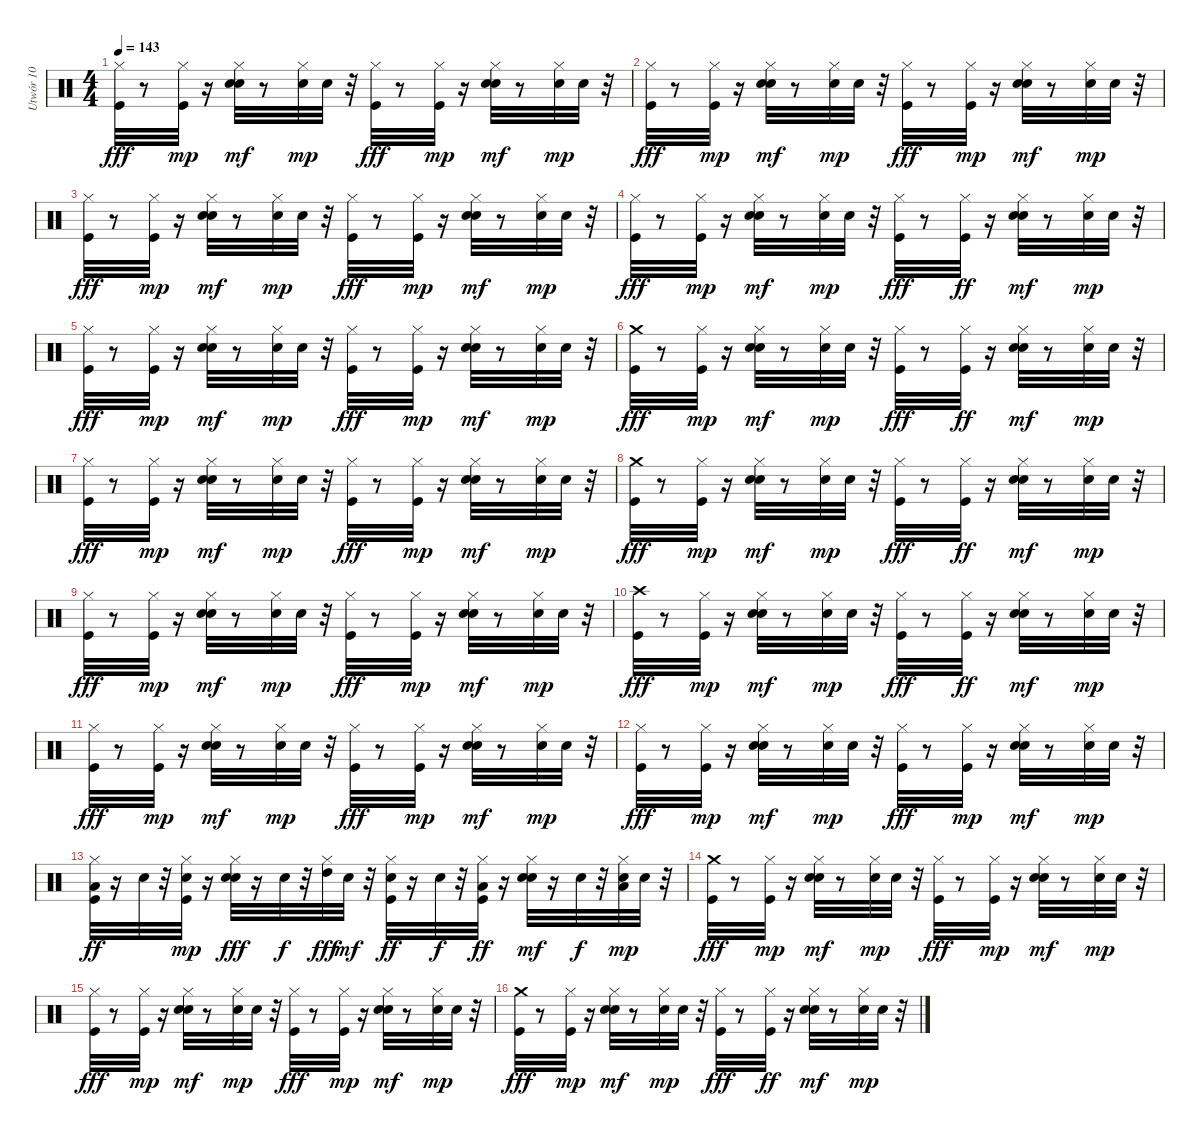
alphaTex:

\track ("Utwór 10" "Utwór 10") {instrument percussion}
\staff {score}
\articulation defaults
\ts (4 4)
\tempo 143
\clef neutral
\ks c
("Hi-Hat (closed)" "Kick (hit)").32{dy fff} r.8 ("Hi-Hat (closed)" "Kick (hit)").32{dy mp} r.16 ("Hi-Hat (closed)" "Snare (hit) 2" "Hand Clap (hit)").32{dy mf} r.8 ("Snare (hit) 2" "Hi-Hat (closed)").32{dy mp} "Hand Clap (hit)".32 r.32 ("Hi-Hat (closed)" "Kick (hit)").32{dy fff} r.8 ("Kick (hit)" "Hi-Hat (closed)").32{dy mp} r.16 ("Snare (hit) 2" "Hi-Hat (closed)" "Hand Clap (hit)").32{dy mf} r.8 ("Hi-Hat (closed)" "Snare (hit) 2").32{dy mp} "Hand Clap (hit)".32 r.32 |
("Kick (hit)" "Hi-Hat (closed)").32{dy fff} r.8 ("Hi-Hat (closed)" "Kick (hit)").32{dy mp} r.16 ("Snare (hit) 2" "Hi-Hat (closed)" "Hand Clap (hit)").32{dy mf} r.8 ("Hi-Hat (closed)" "Snare (hit) 2").32{dy mp} "Hand Clap (hit)".32 r.32 ("Kick (hit)" "Hi-Hat (closed)").32{dy fff} r.8 ("Kick (hit)" "Hi-Hat (closed)").32{dy mp} r.16 ("Hi-Hat (closed)" "Snare (hit) 2" "Hand Clap (hit)").32{dy mf} r.8 ("Hi-Hat (closed)" "Snare (hit) 2").32{dy mp} "Hand Clap (hit)".32 r.32 |
("Hi-Hat (closed)" "Kick (hit)").32{dy fff} r.8 ("Kick (hit)" "Hi-Hat (closed)").32{dy mp} r.16 ("Snare (hit) 2" "Hi-Hat (closed)" "Hand Clap (hit)").32{dy mf} r.8 ("Snare (hit) 2" "Hi-Hat (closed)").32{dy mp} "Hand Clap (hit)".32 r.32 ("Kick (hit)" "Hi-Hat (closed)").32{dy fff} r.8 ("Kick (hit)" "Hi-Hat (closed)").32{dy mp} r.16 ("Snare (hit) 2" "Hi-Hat (closed)" "Hand Clap (hit)").32{dy mf} r.8 ("Snare (hit) 2" "Hi-Hat (closed)").32{dy mp} "Hand Clap (hit)".32 r.32 |
("Hi-Hat (closed)" "Kick (hit)").32{dy fff} r.8 ("Kick (hit)" "Hi-Hat (closed)").32{dy mp} r.16 ("Snare (hit) 2" "Hi-Hat (closed)" "Hand Clap (hit)").32{dy mf} r.8 ("Snare (hit) 2" "Hi-Hat (closed)").32{dy mp} "Hand Clap (hit)".32 r.32 ("Hi-Hat (closed)" "Kick (hit)").32{dy fff} r.8 ("Hi-Hat (closed)" "Kick (hit)").32{dy ff} r.16 ("Hi-Hat (closed)" "Snare (hit) 2" "Hand Clap (hit)").32{dy mf} r.8 ("Snare (hit) 2" "Hi-Hat (closed)").32{dy mp} "Hand Clap (hit)".32 r.32 |
("Kick (hit)" "Hi-Hat (closed)").32{dy fff} r.8 ("Kick (hit)" "Hi-Hat (closed)").32{dy mp} r.16 ("Hi-Hat (closed)" "Snare (hit) 2" "Hand Clap (hit)").32{dy mf} r.8 ("Hi-Hat (closed)" "Snare (hit) 2").32{dy mp} "Hand Clap (hit)".32 r.32 ("Hi-Hat (closed)" "Kick (hit)").32{dy fff} r.8 ("Kick (hit)" "Hi-Hat (closed)").32{dy mp} r.16 ("Snare (hit) 2" "Hi-Hat (closed)" "Hand Clap (hit)").32{dy mf} r.8 ("Snare (hit) 2" "Hi-Hat (closed)").32{dy mp} "Hand Clap (hit)".32 r.32 |
("Crash medium (hit)" "Kick (hit)").32{dy fff} r.8 ("Kick (hit)" "Hi-Hat (closed)").32{dy mp} r.16 ("Snare (hit) 2" "Hi-Hat (closed)" "Hand Clap (hit)").32{dy mf} r.8 ("Hi-Hat (closed)" "Snare (hit) 2").32{dy mp} "Hand Clap (hit)".32 r.32 ("Hi-Hat (closed)" "Kick (hit)").32{dy fff} r.8 ("Hi-Hat (closed)" "Kick (hit)").32{dy ff} r.16 ("Hi-Hat (closed)" "Snare (hit) 2" "Hand Clap (hit)").32{dy mf} r.8 ("Hi-Hat (closed)" "Snare (hit) 2").32{dy mp} "Hand Clap (hit)".32 r.32 |
("Kick (hit)" "Hi-Hat (closed)").32{dy fff} r.8 ("Hi-Hat (closed)" "Kick (hit)").32{dy mp} r.16 ("Snare (hit) 2" "Hi-Hat (closed)" "Hand Clap (hit)").32{dy mf} r.8 ("Snare (hit) 2" "Hi-Hat (closed)").32{dy mp} "Hand Clap (hit)".32 r.32 ("Kick (hit)" "Hi-Hat (closed)").32{dy fff} r.8 ("Kick (hit)" "Hi-Hat (closed)").32{dy mp} r.16 ("Hi-Hat (closed)" "Snare (hit) 2" "Hand Clap (hit)").32{dy mf} r.8 ("Hi-Hat (closed)" "Snare (hit) 2").32{dy mp} "Hand Clap (hit)".32 r.32 |
("Crash medium (hit)" "Kick (hit)").32{dy fff} r.8 ("Hi-Hat (closed)" "Kick (hit)").32{dy mp} r.16 ("Snare (hit) 2" "Hi-Hat (closed)" "Hand Clap (hit)").32{dy mf} r.8 ("Snare (hit) 2" "Hi-Hat (closed)").32{dy mp} "Hand Clap (hit)".32 r.32 ("Hi-Hat (closed)" "Kick (hit)").32{dy fff} r.8 ("Hi-Hat (closed)" "Kick (hit)").32{dy ff} r.16 ("Hi-Hat (closed)" "Snare (hit) 2" "Hand Clap (hit)").32{dy mf} r.8 ("Snare (hit) 2" "Hi-Hat (closed)").32{dy mp} "Hand Clap (hit)".32 r.32 |
("Kick (hit)" "Hi-Hat (closed)").32{dy fff} r.8 ("Hi-Hat (closed)" "Kick (hit)").32{dy mp} r.16 ("Hi-Hat (closed)" "Snare (hit) 2" "Hand Clap (hit)").32{dy mf} r.8 ("Snare (hit) 2" "Hi-Hat (closed)").32{dy mp} "Hand Clap (hit)".32 r.32 ("Hi-Hat (closed)" "Kick (hit)").32{dy fff} r.8 ("Kick (hit)" "Hi-Hat (closed)").32{dy mp} r.16 ("Snare (hit) 2" "Hi-Hat (closed)" "Hand Clap (hit)").32{dy mf} r.8 ("Snare (hit) 2" "Hi-Hat (closed)").32{dy mp} "Hand Clap (hit)".32 r.32 |
("Crash high (hit)" "Kick (hit)").32{dy fff} r.8 ("Kick (hit)" "Hi-Hat (closed)").32{dy mp} r.16 ("Snare (hit) 2" "Hi-Hat (closed)" "Hand Clap (hit)").32{dy mf} r.8 ("Snare (hit) 2" "Hi-Hat (closed)").32{dy mp} "Hand Clap (hit)".32 r.32 ("Hi-Hat (closed)" "Kick (hit)").32{dy fff} r.8 ("Hi-Hat (closed)" "Kick (hit)").32{dy ff} r.16 ("Hi-Hat (closed)" "Snare (hit) 2" "Hand Clap (hit)").32{dy mf} r.8 ("Hi-Hat (closed)" "Snare (hit) 2").32{dy mp} "Hand Clap (hit)".32 r.32 |
("Hi-Hat (closed)" "Kick (hit)").32{dy fff} r.8 ("Kick (hit)" "Hi-Hat (closed)").32{dy mp} r.16 ("Hi-Hat (closed)" "Snare (hit) 2" "Hand Clap (hit)").32{dy mf} r.8 ("Snare (hit) 2" "Hi-Hat (closed)").32{dy mp} "Hand Clap (hit)".32 r.32 ("Kick (hit)" "Hi-Hat (closed)").32{dy fff} r.8 ("Kick (hit)" "Hi-Hat (closed)").32{dy mp} r.16 ("Hi-Hat (closed)" "Snare (hit) 2" "Hand Clap (hit)").32{dy mf} r.8 ("Hi-Hat (closed)" "Snare (hit) 2").32{dy mp} "Hand Clap (hit)".32 r.32 |
("Kick (hit)" "Hi-Hat (closed)").32{dy fff} r.8 ("Hi-Hat (closed)" "Kick (hit)").32{dy mp} r.16 ("Hi-Hat (closed)" "Snare (hit) 2" "Hand Clap (hit)").32{dy mf} r.8 ("Snare (hit) 2" "Hi-Hat (closed)").32{dy mp} "Hand Clap (hit)".32 r.32 ("Hi-Hat (closed)" "Kick (hit)").32{dy fff} r.8 ("Kick (hit)" "Hi-Hat (closed)").32{dy mp} r.16 ("Snare (hit) 2" "Hi-Hat (closed)" "Hand Clap (hit)").32{dy mf} r.8 ("Hi-Hat (closed)" "Snare (hit) 2").32{dy mp} "Hand Clap (hit)".32 r.32 |
("Hi-Hat (closed)" "Kick (hit)" "Low Tom (hit)").32{dy ff} r.16 "Snare (hit) 2".32 r.32 ("Snare (hit) 2" "Kick (hit)" "Hi-Hat (closed)").32{dy mp} r.16 ("Snare (hit) 2" "Hi-Hat (closed)" "Hand Clap (hit)").32{dy fff} r.16 "Snare (hit) 2".32{dy f} r.32 ("Hi-Hat (closed)" "High Tom (hit)").32{dy fff} "Hand Clap (hit)".32{dy mf} r.32 ("Kick (hit)" "Hi-Hat (closed)" "Snare (hit) 2").32{dy ff} r.16 "Snare (hit) 2".32{dy f} r.32 ("Kick (hit)" "Hi-Hat (closed)" "Low Tom (hit)").32{dy ff} r.16 ("Snare (hit) 2" "Hi-Hat (closed)" "Hand Clap (hit)").32{dy mf} r.16 "Snare (hit) 2".32{dy f} r.32 ("Low Floor Tom (hit)" "Hi-Hat (closed)" "Snare (hit) 2").32{dy mp} "Hand Clap (hit)".32 r.32 |
("Crash medium (hit)" "Kick (hit)").32{dy fff} r.8 ("Kick (hit)" "Hi-Hat (closed)").32{dy mp} r.16 ("Hi-Hat (closed)" "Snare (hit) 2" "Hand Clap (hit)").32{dy mf} r.8 ("Snare (hit) 2" "Hi-Hat (closed)").32{dy mp} "Hand Clap (hit)".32 r.32 ("Hi-Hat (closed)" "Kick (hit)").32{dy fff} r.8 ("Kick (hit)" "Hi-Hat (closed)").32{dy mp} r.16 ("Snare (hit) 2" "Hi-Hat (closed)" "Hand Clap (hit)").32{dy mf} r.8 ("Hi-Hat (closed)" "Snare (hit) 2").32{dy mp} "Hand Clap (hit)".32 r.32 |
("Kick (hit)" "Hi-Hat (closed)").32{dy fff} r.8 ("Hi-Hat (closed)" "Kick (hit)").32{dy mp} r.16 ("Snare (hit) 2" "Hi-Hat (closed)" "Hand Clap (hit)").32{dy mf} r.8 ("Snare (hit) 2" "Hi-Hat (closed)").32{dy mp} "Hand Clap (hit)".32 r.32 ("Hi-Hat (closed)" "Kick (hit)").32{dy fff} r.8 ("Kick (hit)" "Hi-Hat (closed)").32{dy mp} r.16 ("Snare (hit) 2" "Hi-Hat (closed)" "Hand Clap (hit)").32{dy mf} r.8 ("Hi-Hat (closed)" "Snare (hit) 2").32{dy mp} "Hand Clap (hit)".32 r.32 |
("Crash medium (hit)" "Kick (hit)").32{dy fff} r.8 ("Kick (hit)" "Hi-Hat (closed)").32{dy mp} r.16 ("Snare (hit) 2" "Hi-Hat (closed)" "Hand Clap (hit)").32{dy mf} r.8 ("Hi-Hat (closed)" "Snare (hit) 2").32{dy mp} "Hand Clap (hit)".32 r.32 ("Kick (hit)" "Hi-Hat (closed)").32{dy fff} r.8 ("Hi-Hat (closed)" "Kick (hit)").32{dy ff} r.16 ("Snare (hit) 2" "Hi-Hat (closed)" "Hand Clap (hit)").32{dy mf} r.8 ("Hi-Hat (closed)" "Snare (hit) 2").32{dy mp} "Hand Clap (hit)".32 r.32
